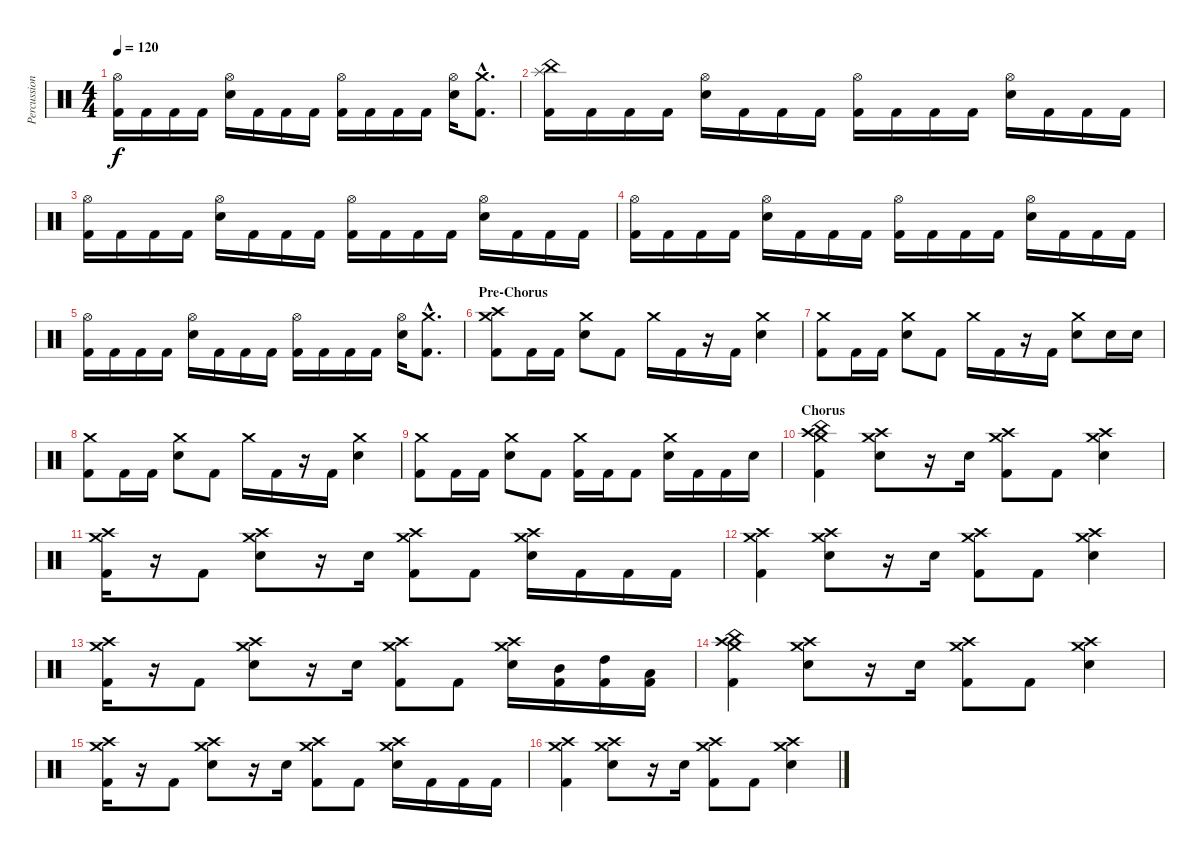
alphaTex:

\track ("Percussion" "Percussion") {instrument percussion}
\staff {score}
\articulation defaults
\ts (4 4)
\tempo 120
\clef neutral
\ks c
("Hi-Hat (open)" "Kick (hit) 2").16{dy f} "Kick (hit) 2".16 "Kick (hit) 2".16 "Kick (hit) 2".16 ("Hi-Hat (open)" "Electric Snare (hit)").16 "Kick (hit) 2".16 "Kick (hit) 2".16 "Kick (hit) 2".16 ("Hi-Hat (open)" "Kick (hit) 2").16 "Kick (hit) 2".16 "Kick (hit) 2".16 "Kick (hit) 2".16 ("Hi-Hat (open)" "Electric Snare (hit)").16 ("Crash medium (hit)"{hac} "Kick (hit) 2"{hac}).8{d} |
("China (hit)" "Splash (hit)" "Kick (hit) 2").16 "Kick (hit) 2".16 "Kick (hit) 2".16 "Kick (hit) 2".16 ("Hi-Hat (open)" "Electric Snare (hit)").16 "Kick (hit) 2".16 "Kick (hit) 2".16 "Kick (hit) 2".16 ("Hi-Hat (open)" "Kick (hit) 2").16 "Kick (hit) 2".16 "Kick (hit) 2".16 "Kick (hit) 2".16 ("Hi-Hat (open)" "Electric Snare (hit)").16 "Kick (hit) 2".16 "Kick (hit) 2".16 "Kick (hit) 2".16 |
("Hi-Hat (open)" "Kick (hit) 2").16 "Kick (hit) 2".16 "Kick (hit) 2".16 "Kick (hit) 2".16 ("Hi-Hat (open)" "Electric Snare (hit)").16 "Kick (hit) 2".16 "Kick (hit) 2".16 "Kick (hit) 2".16 ("Hi-Hat (open)" "Kick (hit) 2").16 "Kick (hit) 2".16 "Kick (hit) 2".16 "Kick (hit) 2".16 ("Hi-Hat (open)" "Electric Snare (hit)").16 "Kick (hit) 2".16 "Kick (hit) 2".16 "Kick (hit) 2".16 |
("Hi-Hat (open)" "Kick (hit) 2").16 "Kick (hit) 2".16 "Kick (hit) 2".16 "Kick (hit) 2".16 ("Hi-Hat (open)" "Electric Snare (hit)").16 "Kick (hit) 2".16 "Kick (hit) 2".16 "Kick (hit) 2".16 ("Hi-Hat (open)" "Kick (hit) 2").16 "Kick (hit) 2".16 "Kick (hit) 2".16 "Kick (hit) 2".16 ("Hi-Hat (open)" "Electric Snare (hit)").16 "Kick (hit) 2".16 "Kick (hit) 2".16 "Kick (hit) 2".16 |
("Hi-Hat (open)" "Kick (hit) 2").16 "Kick (hit) 2".16 "Kick (hit) 2".16 "Kick (hit) 2".16 ("Hi-Hat (open)" "Electric Snare (hit)").16 "Kick (hit) 2".16 "Kick (hit) 2".16 "Kick (hit) 2".16 ("Hi-Hat (open)" "Kick (hit) 2").16 "Kick (hit) 2".16 "Kick (hit) 2".16 "Kick (hit) 2".16 ("Hi-Hat (open)" "Electric Snare (hit)").16 ("Crash medium (hit)"{hac} "Kick (hit) 2"{hac}).8{d} |
\section ("" "Pre-Chorus")
("Crash medium (hit)" "Crash high (hit)" "Kick (hit) 2").8 "Kick (hit) 2".16 "Kick (hit) 2".16 ("Crash medium (hit)" "Electric Snare (hit)").8 "Kick (hit) 2".8 "Crash medium (hit)".16 "Kick (hit) 2".16 r.16 "Kick (hit) 2".16 ("Crash medium (hit)" "Electric Snare (hit)").4 |
("Crash medium (hit)" "Kick (hit) 2").8 "Kick (hit) 2".16 "Kick (hit) 2".16 ("Crash medium (hit)" "Electric Snare (hit)").8 "Kick (hit) 2".8 "Crash medium (hit)".16 "Kick (hit) 2".16 r.16 "Kick (hit) 2".16 ("Crash medium (hit)" "Electric Snare (hit)").8 "Electric Snare (hit)".16 "Electric Snare (hit)".16 |
("Crash medium (hit)" "Kick (hit) 2").8 "Kick (hit) 2".16 "Kick (hit) 2".16 ("Crash medium (hit)" "Electric Snare (hit)").8 "Kick (hit) 2".8 "Crash medium (hit)".16 "Kick (hit) 2".16 r.16 "Kick (hit) 2".16 ("Crash medium (hit)" "Electric Snare (hit)").4 |
("Crash medium (hit)" "Kick (hit) 2").8 "Kick (hit) 2".16 "Kick (hit) 2".16 ("Crash medium (hit)" "Electric Snare (hit)").8 "Kick (hit) 2".8 ("Crash medium (hit)" "Kick (hit) 2").16 "Kick (hit) 2".16 "Kick (hit) 2".8 ("Crash medium (hit)" "Electric Snare (hit)").16 "Kick (hit) 2".16 "Kick (hit) 2".16 "Electric Snare (hit)".16 |
\section ("" "Chorus")
("Crash high (hit)" "Crash medium (hit)" "China (hit)" "Kick (hit) 2").4 ("Crash high (hit)" "Crash medium (hit)" "Electric Snare (hit)").8 r.16 "Electric Snare (hit)".16 ("Crash high (hit)" "Crash medium (hit)" "Kick (hit) 2").8 "Kick (hit) 2".8 ("Crash high (hit)" "Crash medium (hit)" "Electric Snare (hit)").4 |
("Crash high (hit)" "Crash medium (hit)" "Kick (hit) 2").16 r.16 "Kick (hit) 2".8 ("Crash high (hit)" "Crash medium (hit)" "Electric Snare (hit)").8 r.16 "Electric Snare (hit)".16 ("Crash high (hit)" "Crash medium (hit)" "Kick (hit) 2").8 "Kick (hit) 2".8 ("Crash high (hit)" "Crash medium (hit)" "Electric Snare (hit)").16 "Kick (hit) 2".16 "Kick (hit) 2".16 "Kick (hit) 2".16 |
("Crash high (hit)" "Crash medium (hit)" "Kick (hit) 2").4 ("Crash high (hit)" "Crash medium (hit)" "Electric Snare (hit)").8 r.16 "Electric Snare (hit)".16 ("Crash high (hit)" "Crash medium (hit)" "Kick (hit) 2").8 "Kick (hit) 2".8 ("Crash high (hit)" "Crash medium (hit)" "Electric Snare (hit)").4 |
("Crash high (hit)" "Crash medium (hit)" "Kick (hit) 2").16 r.16 "Kick (hit) 2".8 ("Crash high (hit)" "Crash medium (hit)" "Electric Snare (hit)").8 r.16 "Electric Snare (hit)".16 ("Crash high (hit)" "Crash medium (hit)" "Kick (hit) 2").8 "Kick (hit) 2".8 ("Crash high (hit)" "Crash medium (hit)" "Electric Snare (hit)").16 ("Mid Tom (hit)" "Kick (hit) 2").16 ("High Tom (hit)" "Kick (hit) 2").16 ("Low Tom (hit)" "Kick (hit) 2").16 |
("Crash high (hit)" "Crash medium (hit)" "China (hit)" "Kick (hit) 2").4 ("Crash high (hit)" "Crash medium (hit)" "Electric Snare (hit)").8 r.16 "Electric Snare (hit)".16 ("Crash high (hit)" "Crash medium (hit)" "Kick (hit) 2").8 "Kick (hit) 2".8 ("Crash high (hit)" "Crash medium (hit)" "Electric Snare (hit)").4 |
("Crash high (hit)" "Crash medium (hit)" "Kick (hit) 2").16 r.16 "Kick (hit) 2".8 ("Crash high (hit)" "Crash medium (hit)" "Electric Snare (hit)").8 r.16 "Electric Snare (hit)".16 ("Crash high (hit)" "Crash medium (hit)" "Kick (hit) 2").8 "Kick (hit) 2".8 ("Crash high (hit)" "Crash medium (hit)" "Electric Snare (hit)").16 "Kick (hit) 2".16 "Kick (hit) 2".16 "Kick (hit) 2".16 |
("Crash high (hit)" "Crash medium (hit)" "Kick (hit) 2").4 ("Crash high (hit)" "Crash medium (hit)" "Electric Snare (hit)").8 r.16 "Electric Snare (hit)".16 ("Crash high (hit)" "Crash medium (hit)" "Kick (hit) 2").8 "Kick (hit) 2".8 ("Crash high (hit)" "Crash medium (hit)" "Electric Snare (hit)").4
